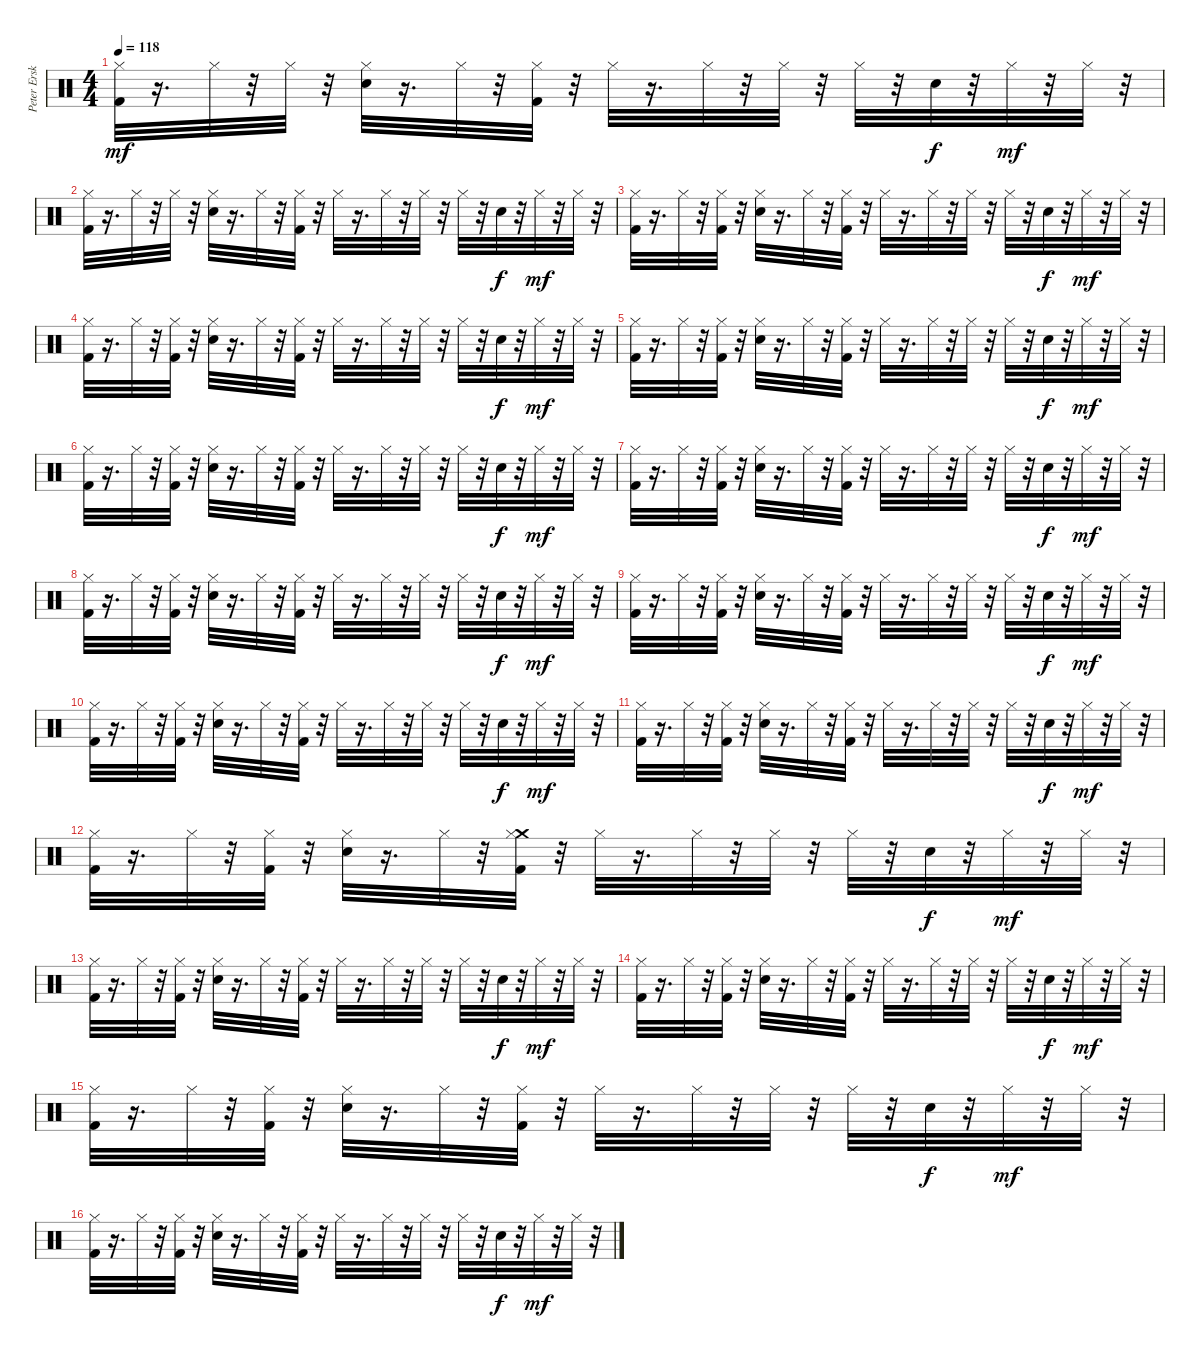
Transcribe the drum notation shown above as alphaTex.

\track ("Peter Erskine" "Peter Ersk") {instrument percussion}
\staff {score}
\articulation defaults
\ts (4 4)
\tempo 118
\clef neutral
\ks c
("Kick (hit) 2" "Hi-Hat (closed)").32{dy mf} r.16{d} "Hi-Hat (closed)".32 r.32 "Hi-Hat (closed)".32 r.32 ("Electric Snare (hit)" "Hi-Hat (closed)").32 r.16{d} "Hi-Hat (closed)".32 r.32 ("Kick (hit) 2" "Hi-Hat (closed)").32 r.32 "Hi-Hat (closed)".32 r.16{d} "Hi-Hat (closed)".32 r.32 "Hi-Hat (closed)".32 r.32 "Hi-Hat (closed)".32 r.32 "Electric Snare (hit)".32{dy f} r.32 "Hi-Hat (closed)".32{dy mf} r.32 "Hi-Hat (closed)".32 r.32 |
("Kick (hit) 2" "Hi-Hat (closed)").32 r.16{d} "Hi-Hat (closed)".32 r.32 "Hi-Hat (closed)".32 r.32 ("Electric Snare (hit)" "Hi-Hat (closed)").32 r.16{d} "Hi-Hat (closed)".32 r.32 ("Kick (hit) 2" "Hi-Hat (closed)").32 r.32 "Hi-Hat (closed)".32 r.16{d} "Hi-Hat (closed)".32 r.32 "Hi-Hat (closed)".32 r.32 "Hi-Hat (closed)".32 r.32 "Electric Snare (hit)".32{dy f} r.32 "Hi-Hat (closed)".32{dy mf} r.32 "Hi-Hat (closed)".32 r.32 |
("Kick (hit) 2" "Hi-Hat (closed)").32 r.16{d} "Hi-Hat (closed)".32 r.32 ("Kick (hit) 2" "Hi-Hat (closed)").32 r.32 ("Electric Snare (hit)" "Hi-Hat (closed)").32 r.16{d} "Hi-Hat (closed)".32 r.32 ("Kick (hit) 2" "Hi-Hat (closed)").32 r.32 "Hi-Hat (closed)".32 r.16{d} "Hi-Hat (closed)".32 r.32 "Hi-Hat (closed)".32 r.32 "Hi-Hat (closed)".32 r.32 "Electric Snare (hit)".32{dy f} r.32 "Hi-Hat (closed)".32{dy mf} r.32 "Hi-Hat (closed)".32 r.32 |
("Kick (hit) 2" "Hi-Hat (closed)").32 r.16{d} "Hi-Hat (closed)".32 r.32 ("Kick (hit) 2" "Hi-Hat (closed)").32 r.32 ("Electric Snare (hit)" "Hi-Hat (closed)").32 r.16{d} "Hi-Hat (closed)".32 r.32 ("Kick (hit) 2" "Hi-Hat (closed)").32 r.32 "Hi-Hat (closed)".32 r.16{d} "Hi-Hat (closed)".32 r.32 "Hi-Hat (closed)".32 r.32 "Hi-Hat (closed)".32 r.32 "Electric Snare (hit)".32{dy f} r.32 "Hi-Hat (closed)".32{dy mf} r.32 "Hi-Hat (closed)".32 r.32 |
("Kick (hit) 2" "Hi-Hat (closed)").32 r.16{d} "Hi-Hat (closed)".32 r.32 ("Kick (hit) 2" "Hi-Hat (closed)").32 r.32 ("Electric Snare (hit)" "Hi-Hat (closed)").32 r.16{d} "Hi-Hat (closed)".32 r.32 ("Kick (hit) 2" "Hi-Hat (closed)").32 r.32 "Hi-Hat (closed)".32 r.16{d} "Hi-Hat (closed)".32 r.32 "Hi-Hat (closed)".32 r.32 "Hi-Hat (closed)".32 r.32 "Electric Snare (hit)".32{dy f} r.32 "Hi-Hat (closed)".32{dy mf} r.32 "Hi-Hat (closed)".32 r.32 |
("Kick (hit) 2" "Hi-Hat (closed)").32 r.16{d} "Hi-Hat (closed)".32 r.32 ("Kick (hit) 2" "Hi-Hat (closed)").32 r.32 ("Electric Snare (hit)" "Hi-Hat (closed)").32 r.16{d} "Hi-Hat (closed)".32 r.32 ("Kick (hit) 2" "Hi-Hat (closed)").32 r.32 "Hi-Hat (closed)".32 r.16{d} "Hi-Hat (closed)".32 r.32 "Hi-Hat (closed)".32 r.32 "Hi-Hat (closed)".32 r.32 "Electric Snare (hit)".32{dy f} r.32 "Hi-Hat (closed)".32{dy mf} r.32 "Hi-Hat (closed)".32 r.32 |
("Kick (hit) 2" "Hi-Hat (closed)").32 r.16{d} "Hi-Hat (closed)".32 r.32 ("Kick (hit) 2" "Hi-Hat (closed)").32 r.32 ("Electric Snare (hit)" "Hi-Hat (closed)").32 r.16{d} "Hi-Hat (closed)".32 r.32 ("Kick (hit) 2" "Hi-Hat (closed)").32 r.32 "Hi-Hat (closed)".32 r.16{d} "Hi-Hat (closed)".32 r.32 "Hi-Hat (closed)".32 r.32 "Hi-Hat (closed)".32 r.32 "Electric Snare (hit)".32{dy f} r.32 "Hi-Hat (closed)".32{dy mf} r.32 "Hi-Hat (closed)".32 r.32 |
("Kick (hit) 2" "Hi-Hat (closed)").32 r.16{d} "Hi-Hat (closed)".32 r.32 ("Kick (hit) 2" "Hi-Hat (closed)").32 r.32 ("Electric Snare (hit)" "Hi-Hat (closed)").32 r.16{d} "Hi-Hat (closed)".32 r.32 ("Kick (hit) 2" "Hi-Hat (closed)").32 r.32 "Hi-Hat (closed)".32 r.16{d} "Hi-Hat (closed)".32 r.32 "Hi-Hat (closed)".32 r.32 "Hi-Hat (closed)".32 r.32 "Electric Snare (hit)".32{dy f} r.32 "Hi-Hat (closed)".32{dy mf} r.32 "Hi-Hat (closed)".32 r.32 |
("Kick (hit) 2" "Hi-Hat (closed)").32 r.16{d} "Hi-Hat (closed)".32 r.32 ("Kick (hit) 2" "Hi-Hat (closed)").32 r.32 ("Electric Snare (hit)" "Hi-Hat (closed)").32 r.16{d} "Hi-Hat (closed)".32 r.32 ("Kick (hit) 2" "Hi-Hat (closed)").32 r.32 "Hi-Hat (closed)".32 r.16{d} "Hi-Hat (closed)".32 r.32 "Hi-Hat (closed)".32 r.32 "Hi-Hat (closed)".32 r.32 "Electric Snare (hit)".32{dy f} r.32 "Hi-Hat (closed)".32{dy mf} r.32 "Hi-Hat (closed)".32 r.32 |
("Kick (hit) 2" "Hi-Hat (closed)").32 r.16{d} "Hi-Hat (closed)".32 r.32 ("Kick (hit) 2" "Hi-Hat (closed)").32 r.32 ("Electric Snare (hit)" "Hi-Hat (closed)").32 r.16{d} "Hi-Hat (closed)".32 r.32 ("Kick (hit) 2" "Hi-Hat (closed)").32 r.32 "Hi-Hat (closed)".32 r.16{d} "Hi-Hat (closed)".32 r.32 "Hi-Hat (closed)".32 r.32 "Hi-Hat (closed)".32 r.32 "Electric Snare (hit)".32{dy f} r.32 "Hi-Hat (closed)".32{dy mf} r.32 "Hi-Hat (closed)".32 r.32 |
("Kick (hit) 2" "Hi-Hat (closed)").32 r.16{d} "Hi-Hat (closed)".32 r.32 ("Kick (hit) 2" "Hi-Hat (closed)").32 r.32 ("Electric Snare (hit)" "Hi-Hat (closed)").32 r.16{d} "Hi-Hat (closed)".32 r.32 ("Kick (hit) 2" "Hi-Hat (closed)").32 r.32 "Hi-Hat (closed)".32 r.16{d} "Hi-Hat (closed)".32 r.32 "Hi-Hat (closed)".32 r.32 "Hi-Hat (closed)".32 r.32 "Electric Snare (hit)".32{dy f} r.32 "Hi-Hat (closed)".32{dy mf} r.32 "Hi-Hat (closed)".32 r.32 |
("Kick (hit) 2" "Hi-Hat (closed)").32 r.16{d} "Hi-Hat (closed)".32 r.32 ("Kick (hit) 2" "Hi-Hat (closed)").32 r.32 ("Electric Snare (hit)" "Hi-Hat (closed)").32 r.16{d} "Hi-Hat (closed)".32 r.32 ("Kick (hit) 2" "Crash medium (hit)" "Hi-Hat (closed)").32 r.32 "Hi-Hat (closed)".32 r.16{d} "Hi-Hat (closed)".32 r.32 "Hi-Hat (closed)".32 r.32 "Hi-Hat (closed)".32 r.32 "Electric Snare (hit)".32{dy f} r.32 "Hi-Hat (closed)".32{dy mf} r.32 "Hi-Hat (closed)".32 r.32 |
("Kick (hit) 2" "Hi-Hat (closed)").32 r.16{d} "Hi-Hat (closed)".32 r.32 ("Kick (hit) 2" "Hi-Hat (closed)").32 r.32 ("Electric Snare (hit)" "Hi-Hat (closed)").32 r.16{d} "Hi-Hat (closed)".32 r.32 ("Kick (hit) 2" "Hi-Hat (closed)").32 r.32 "Hi-Hat (closed)".32 r.16{d} "Hi-Hat (closed)".32 r.32 "Hi-Hat (closed)".32 r.32 "Hi-Hat (closed)".32 r.32 "Electric Snare (hit)".32{dy f} r.32 "Hi-Hat (closed)".32{dy mf} r.32 "Hi-Hat (closed)".32 r.32 |
("Kick (hit) 2" "Hi-Hat (closed)").32 r.16{d} "Hi-Hat (closed)".32 r.32 ("Kick (hit) 2" "Hi-Hat (closed)").32 r.32 ("Electric Snare (hit)" "Hi-Hat (closed)").32 r.16{d} "Hi-Hat (closed)".32 r.32 ("Kick (hit) 2" "Hi-Hat (closed)").32 r.32 "Hi-Hat (closed)".32 r.16{d} "Hi-Hat (closed)".32 r.32 "Hi-Hat (closed)".32 r.32 "Hi-Hat (closed)".32 r.32 "Electric Snare (hit)".32{dy f} r.32 "Hi-Hat (closed)".32{dy mf} r.32 "Hi-Hat (closed)".32 r.32 |
("Kick (hit) 2" "Hi-Hat (closed)").32 r.16{d} "Hi-Hat (closed)".32 r.32 ("Kick (hit) 2" "Hi-Hat (closed)").32 r.32 ("Electric Snare (hit)" "Hi-Hat (closed)").32 r.16{d} "Hi-Hat (closed)".32 r.32 ("Kick (hit) 2" "Hi-Hat (closed)").32 r.32 "Hi-Hat (closed)".32 r.16{d} "Hi-Hat (closed)".32 r.32 "Hi-Hat (closed)".32 r.32 "Hi-Hat (closed)".32 r.32 "Electric Snare (hit)".32{dy f} r.32 "Hi-Hat (closed)".32{dy mf} r.32 "Hi-Hat (closed)".32 r.32 |
("Kick (hit) 2" "Hi-Hat (closed)").32 r.16{d} "Hi-Hat (closed)".32 r.32 ("Kick (hit) 2" "Hi-Hat (closed)").32 r.32 ("Electric Snare (hit)" "Hi-Hat (closed)").32 r.16{d} "Hi-Hat (closed)".32 r.32 ("Kick (hit) 2" "Hi-Hat (closed)").32 r.32 "Hi-Hat (closed)".32 r.16{d} "Hi-Hat (closed)".32 r.32 "Hi-Hat (closed)".32 r.32 "Hi-Hat (closed)".32 r.32 "Electric Snare (hit)".32{dy f} r.32 "Hi-Hat (closed)".32{dy mf} r.32 "Hi-Hat (closed)".32 r.32
